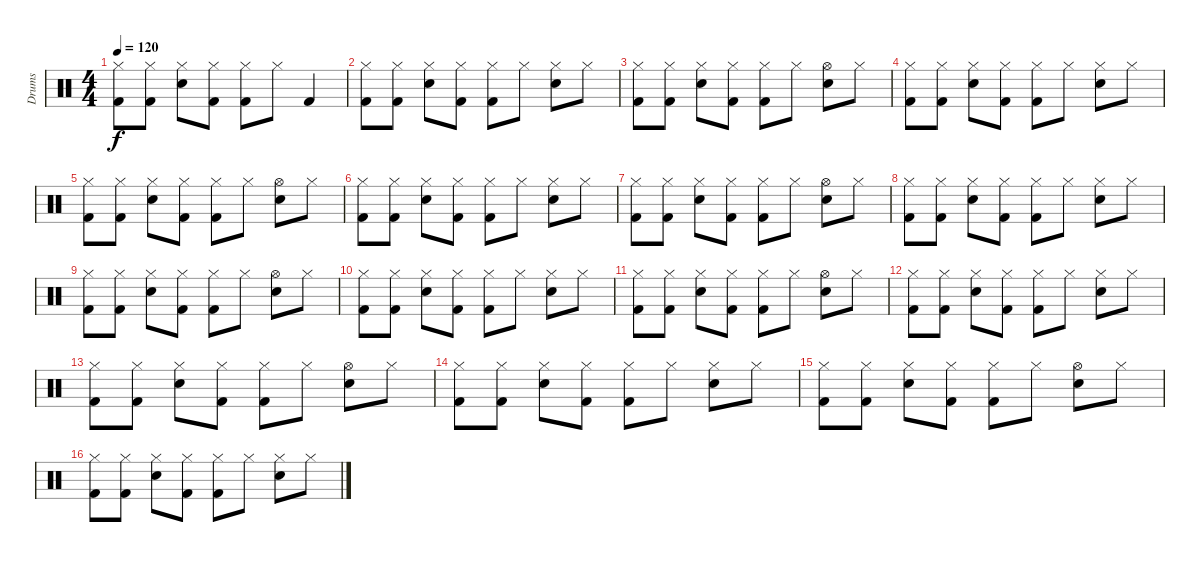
\track ("Drums " "Drums ") {instrument percussion}
\staff {score}
\articulation defaults
\ts (4 4)
\tempo 120
\clef neutral
\ks c
("Kick (hit) 2" "Hi-Hat (closed)").8{dy f} ("Kick (hit) 2" "Hi-Hat (closed)").8 ("Electric Snare (hit)" "Hi-Hat (closed)").8 ("Kick (hit) 2" "Hi-Hat (closed)").8 ("Kick (hit) 2" "Hi-Hat (closed)").8 "Hi-Hat (closed)".8 "Kick (hit) 2".4 |
("Kick (hit) 2" "Hi-Hat (closed)").8 ("Kick (hit) 2" "Hi-Hat (closed)").8 ("Electric Snare (hit)" "Hi-Hat (closed)").8 ("Kick (hit) 2" "Hi-Hat (closed)").8 ("Kick (hit) 2" "Hi-Hat (closed)").8 "Hi-Hat (closed)".8 ("Electric Snare (hit)" "Hi-Hat (closed)").8 "Hi-Hat (closed)".8 |
("Kick (hit) 2" "Hi-Hat (closed)").8 ("Kick (hit) 2" "Hi-Hat (closed)").8 ("Electric Snare (hit)" "Hi-Hat (closed)").8 ("Kick (hit) 2" "Hi-Hat (closed)").8 ("Kick (hit) 2" "Hi-Hat (closed)").8 "Hi-Hat (closed)".8 ("Electric Snare (hit)" "Hi-Hat (open)").8 "Hi-Hat (closed)".8 |
("Kick (hit) 2" "Hi-Hat (closed)").8 ("Kick (hit) 2" "Hi-Hat (closed)").8 ("Electric Snare (hit)" "Hi-Hat (closed)").8 ("Kick (hit) 2" "Hi-Hat (closed)").8 ("Kick (hit) 2" "Hi-Hat (closed)").8 "Hi-Hat (closed)".8 ("Electric Snare (hit)" "Hi-Hat (closed)").8 "Hi-Hat (closed)".8 |
("Kick (hit) 2" "Hi-Hat (closed)").8 ("Kick (hit) 2" "Hi-Hat (closed)").8 ("Electric Snare (hit)" "Hi-Hat (closed)").8 ("Kick (hit) 2" "Hi-Hat (closed)").8 ("Kick (hit) 2" "Hi-Hat (closed)").8 "Hi-Hat (closed)".8 ("Electric Snare (hit)" "Hi-Hat (open)").8 "Hi-Hat (closed)".8 |
("Kick (hit) 2" "Hi-Hat (closed)").8 ("Kick (hit) 2" "Hi-Hat (closed)").8 ("Electric Snare (hit)" "Hi-Hat (closed)").8 ("Kick (hit) 2" "Hi-Hat (closed)").8 ("Kick (hit) 2" "Hi-Hat (closed)").8 "Hi-Hat (closed)".8 ("Electric Snare (hit)" "Hi-Hat (closed)").8 "Hi-Hat (closed)".8 |
("Kick (hit) 2" "Hi-Hat (closed)").8 ("Kick (hit) 2" "Hi-Hat (closed)").8 ("Electric Snare (hit)" "Hi-Hat (closed)").8 ("Kick (hit) 2" "Hi-Hat (closed)").8 ("Kick (hit) 2" "Hi-Hat (closed)").8 "Hi-Hat (closed)".8 ("Electric Snare (hit)" "Hi-Hat (open)").8 "Hi-Hat (closed)".8 |
("Kick (hit) 2" "Hi-Hat (closed)").8 ("Kick (hit) 2" "Hi-Hat (closed)").8 ("Electric Snare (hit)" "Hi-Hat (closed)").8 ("Kick (hit) 2" "Hi-Hat (closed)").8 ("Kick (hit) 2" "Hi-Hat (closed)").8 "Hi-Hat (closed)".8 ("Electric Snare (hit)" "Hi-Hat (closed)").8 "Hi-Hat (closed)".8 |
("Kick (hit) 2" "Hi-Hat (closed)").8 ("Kick (hit) 2" "Hi-Hat (closed)").8 ("Electric Snare (hit)" "Hi-Hat (closed)").8 ("Kick (hit) 2" "Hi-Hat (closed)").8 ("Kick (hit) 2" "Hi-Hat (closed)").8 "Hi-Hat (closed)".8 ("Electric Snare (hit)" "Hi-Hat (open)").8 "Hi-Hat (closed)".8 |
("Kick (hit) 2" "Hi-Hat (closed)").8 ("Kick (hit) 2" "Hi-Hat (closed)").8 ("Electric Snare (hit)" "Hi-Hat (closed)").8 ("Kick (hit) 2" "Hi-Hat (closed)").8 ("Kick (hit) 2" "Hi-Hat (closed)").8 "Hi-Hat (closed)".8 ("Electric Snare (hit)" "Hi-Hat (closed)").8 "Hi-Hat (closed)".8 |
("Kick (hit) 2" "Hi-Hat (closed)").8 ("Kick (hit) 2" "Hi-Hat (closed)").8 ("Electric Snare (hit)" "Hi-Hat (closed)").8 ("Kick (hit) 2" "Hi-Hat (closed)").8 ("Kick (hit) 2" "Hi-Hat (closed)").8 "Hi-Hat (closed)".8 ("Electric Snare (hit)" "Hi-Hat (open)").8 "Hi-Hat (closed)".8 |
("Kick (hit) 2" "Hi-Hat (closed)").8 ("Kick (hit) 2" "Hi-Hat (closed)").8 ("Electric Snare (hit)" "Hi-Hat (closed)").8 ("Kick (hit) 2" "Hi-Hat (closed)").8 ("Kick (hit) 2" "Hi-Hat (closed)").8 "Hi-Hat (closed)".8 ("Electric Snare (hit)" "Hi-Hat (closed)").8 "Hi-Hat (closed)".8 |
("Kick (hit) 2" "Hi-Hat (closed)").8 ("Kick (hit) 2" "Hi-Hat (closed)").8 ("Electric Snare (hit)" "Hi-Hat (closed)").8 ("Kick (hit) 2" "Hi-Hat (closed)").8 ("Kick (hit) 2" "Hi-Hat (closed)").8 "Hi-Hat (closed)".8 ("Electric Snare (hit)" "Hi-Hat (open)").8 "Hi-Hat (closed)".8 |
("Kick (hit) 2" "Hi-Hat (closed)").8 ("Kick (hit) 2" "Hi-Hat (closed)").8 ("Electric Snare (hit)" "Hi-Hat (closed)").8 ("Kick (hit) 2" "Hi-Hat (closed)").8 ("Kick (hit) 2" "Hi-Hat (closed)").8 "Hi-Hat (closed)".8 ("Electric Snare (hit)" "Hi-Hat (closed)").8 "Hi-Hat (closed)".8 |
("Kick (hit) 2" "Hi-Hat (closed)").8 ("Kick (hit) 2" "Hi-Hat (closed)").8 ("Electric Snare (hit)" "Hi-Hat (closed)").8 ("Kick (hit) 2" "Hi-Hat (closed)").8 ("Kick (hit) 2" "Hi-Hat (closed)").8 "Hi-Hat (closed)".8 ("Electric Snare (hit)" "Hi-Hat (open)").8 "Hi-Hat (closed)".8 |
("Hi-Hat (closed)" "Kick (hit) 2").8 ("Hi-Hat (closed)" "Kick (hit) 2").8 ("Hi-Hat (closed)" "Electric Snare (hit)").8 ("Hi-Hat (closed)" "Kick (hit) 2").8 ("Hi-Hat (closed)" "Kick (hit) 2").8 "Hi-Hat (closed)".8 ("Hi-Hat (closed)" "Electric Snare (hit)").8 "Hi-Hat (closed)".8
